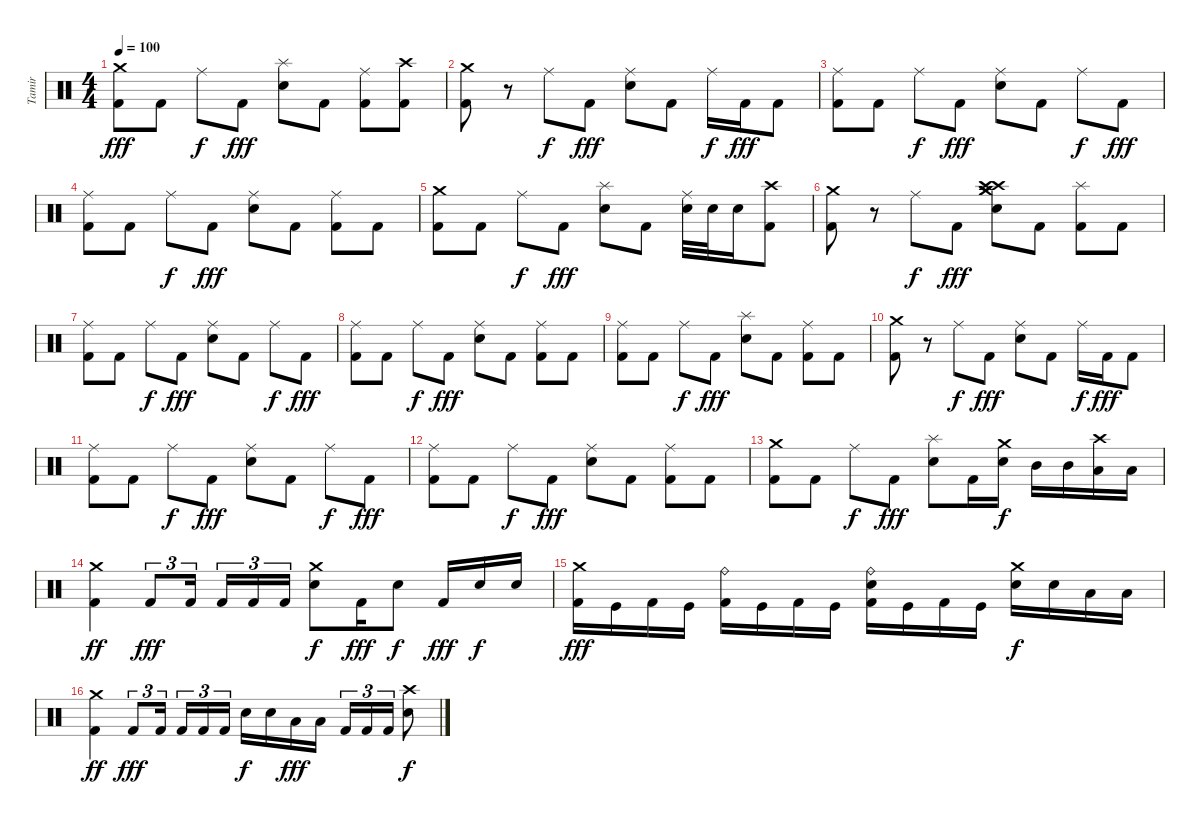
\track ("Tamir" "Tamir") {instrument percussion}
\staff {score}
\articulation defaults
\ts (4 4)
\tempo 100
\clef neutral
\ks c
("Crash medium (hit)" "Kick (hit) 2").8{dy fff} "Kick (hit) 2".8 "Ride (middle)".8{dy f} "Kick (hit) 2".8{dy fff} ("Splash (hit)" "Electric Snare (hit)").8 "Kick (hit) 2".8 ("Ride (middle)" "Kick (hit) 2").8 ("Crash high (hit)" "Kick (hit) 2").8 |
("Crash medium (hit)" "Kick (hit) 2").8 r.8 "Ride (middle)".8{dy f} "Kick (hit) 2".8{dy fff} ("Ride (middle)" "Electric Snare (hit)").8 "Kick (hit) 2".8 "Ride (middle)".16{dy f} "Kick (hit) 2".16{dy fff} "Kick (hit) 2".8 |
("Ride (middle)" "Kick (hit) 2").8 "Kick (hit) 2".8 "Ride (middle)".8{dy f} "Kick (hit) 2".8{dy fff} ("Ride (middle)" "Electric Snare (hit)").8 "Kick (hit) 2".8 "Ride (middle)".8{dy f} "Kick (hit) 2".8{dy fff} |
("Ride (middle)" "Kick (hit) 2").8 "Kick (hit) 2".8 "Ride (middle)".8{dy f} "Kick (hit) 2".8{dy fff} ("Ride (middle)" "Electric Snare (hit)").8 "Kick (hit) 2".8 ("Ride (middle)" "Kick (hit) 2").8 "Kick (hit) 2".8 |
("Crash medium (hit)" "Kick (hit) 2").8 "Kick (hit) 2".8 "Ride (middle)".8{dy f} "Kick (hit) 2".8{dy fff} ("Splash (hit)" "Electric Snare (hit)").8 "Kick (hit) 2".8 ("Ride (middle)" "Electric Snare (hit)").32 "Electric Snare (hit)".32 "Electric Snare (hit)".16 ("Crash high (hit)" "Kick (hit) 2").8 |
("Crash medium (hit)" "Kick (hit) 2").8 r.8 "Ride (middle)".8{dy f} "Kick (hit) 2".8{dy fff} ("Crash medium (hit)" "Crash high (hit)" "Crash high (hit)" "Crash medium (hit)" "Electric Snare (hit)").8 "Kick (hit) 2".8 ("Splash (hit)" "Kick (hit) 2").8 "Kick (hit) 2".8 |
("Ride (middle)" "Kick (hit) 2").8 "Kick (hit) 2".8 "Ride (middle)".8{dy f} "Kick (hit) 2".8{dy fff} ("Ride (middle)" "Electric Snare (hit)").8 "Kick (hit) 2".8 "Ride (middle)".8{dy f} "Kick (hit) 2".8{dy fff} |
("Ride (middle)" "Kick (hit) 2").8 "Kick (hit) 2".8 "Ride (middle)".8{dy f} "Kick (hit) 2".8{dy fff} ("Ride (middle)" "Electric Snare (hit)").8 "Kick (hit) 2".8 ("Ride (middle)" "Kick (hit) 2").8 "Kick (hit) 2".8 |
("Ride (middle)" "Kick (hit) 2").8 "Kick (hit) 2".8 "Ride (middle)".8{dy f} "Kick (hit) 2".8{dy fff} ("Splash (hit)" "Electric Snare (hit)").8 "Kick (hit) 2".8 ("Ride (middle)" "Kick (hit) 2").8 "Kick (hit) 2".8 |
("Crash medium (hit)" "Kick (hit) 2").8 r.8 "Ride (middle)".8{dy f} "Kick (hit) 2".8{dy fff} ("Ride (middle)" "Electric Snare (hit)").8 "Kick (hit) 2".8 "Ride (middle)".16{dy f} "Kick (hit) 2".16{dy fff} "Kick (hit) 2".8 |
("Ride (middle)" "Kick (hit) 2").8 "Kick (hit) 2".8 "Ride (middle)".8{dy f} "Kick (hit) 2".8{dy fff} ("Ride (middle)" "Electric Snare (hit)").8 "Kick (hit) 2".8 "Ride (middle)".8{dy f} "Kick (hit) 2".8{dy fff} |
("Ride (middle)" "Kick (hit) 2").8 "Kick (hit) 2".8 "Ride (middle)".8{dy f} "Kick (hit) 2".8{dy fff} ("Ride (middle)" "Electric Snare (hit)").8 "Kick (hit) 2".8 ("Ride (middle)" "Kick (hit) 2").8 "Kick (hit) 2".8 |
("Crash medium (hit)" "Kick (hit) 2").8 "Kick (hit) 2".8 "Ride (middle)".8{dy f} "Kick (hit) 2".8{dy fff} ("Splash (hit)" "Electric Snare (hit)").8 "Kick (hit) 2".16 ("Crash medium (hit)" "Electric Snare (hit)").16{dy f} "Mid Tom (hit)".16 "Mid Tom (hit)".16 ("Crash high (hit)" "Low Tom (hit)").16 "Low Tom (hit)".16 |
("Crash medium (hit)" "Kick (hit) 2").4{dy ff} "Kick (hit) 2".8{tu (3 2) dy fff} "Kick (hit) 2".16{tu (3 2)} "Kick (hit) 2".16{tu (3 2)} "Kick (hit) 2".16{tu (3 2)} "Kick (hit) 2".16{tu (3 2)} ("Crash medium (hit)" "Electric Snare (hit)").8{dy f} "Kick (hit) 2".16{dy fff} "Electric Snare (hit)".8{dy f} "Kick (hit) 2".16{dy fff} "Electric Snare (hit)".16{dy f} "Electric Snare (hit)".16 |
("Crash medium (hit)" "Kick (hit) 2").16{dy fff} "Kick (hit)".16 "Kick (hit) 2".16 "Kick (hit)".16 ("Ride (bell)" "Kick (hit) 2").16 "Kick (hit)".16 "Kick (hit) 2".16 "Kick (hit)".16 ("Ride (bell)" "Electric Snare (hit)" "Kick (hit) 2").16 "Kick (hit)".16 "Kick (hit) 2".16 "Kick (hit)".16 ("Crash medium (hit)" "Electric Snare (hit)").16{dy f} "Electric Snare (hit)".16 "Low Tom (hit)".16 "Low Tom (hit)".16 |
("Crash medium (hit)" "Kick (hit) 2").4{dy ff} "Kick (hit) 2".8{tu (3 2) dy fff} "Kick (hit) 2".16{tu (3 2)} "Kick (hit) 2".16{tu (3 2)} "Kick (hit) 2".16{tu (3 2)} "Kick (hit) 2".16{tu (3 2)} "Electric Snare (hit)".16{dy f} "Electric Snare (hit)".16 "Low Tom (hit)".16{dy fff} "Low Tom (hit)".16 "Kick (hit) 2".16{tu (3 2)} "Kick (hit) 2".16{tu (3 2)} "Kick (hit) 2".16{tu (3 2)} ("Crash high (hit)" "Electric Snare (hit)").8{dy f}
